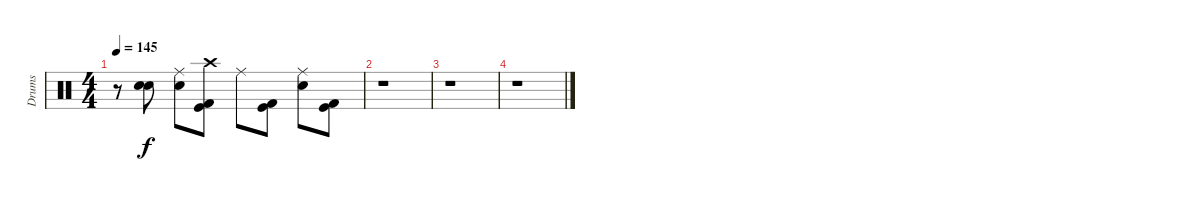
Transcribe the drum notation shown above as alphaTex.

\track ("Drums" "Drums") {instrument percussion}
\staff {score}
\articulation defaults
\ts (4 4)
\tempo 145
\clef neutral
\ks c
r.8{dy f} ("Electric Snare (hit)" "Electric Snare (hit)").8 ("Ride (middle)" "Electric Snare (hit)").8 ("Kick (hit) 2" "Crash high (hit)" "Kick (hit)").8 "Ride (middle)".8 ("Kick (hit) 2" "Kick (hit)").8 ("Ride (middle)" "Electric Snare (hit)").8 ("Kick (hit) 2" "Kick (hit)").8 |
r.1 |
r.1 |
r.1
